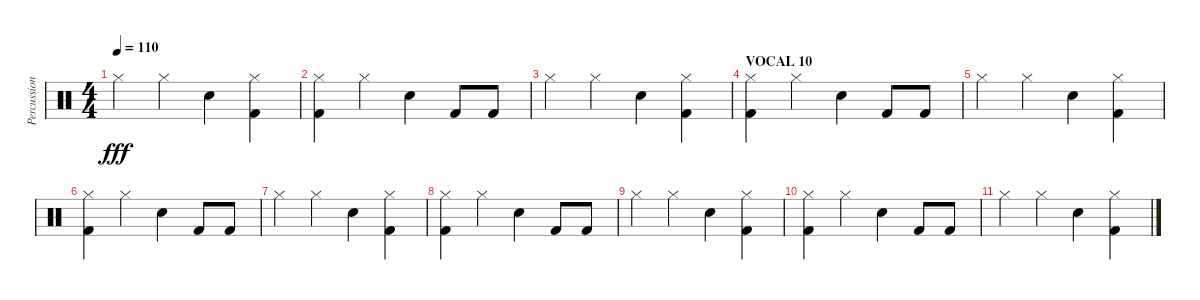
\track ("Percussion" "Percussion") {instrument percussion}
\staff {score}
\articulation defaults
\ts (4 4)
\tempo 110
\clef neutral
\ks c "Hi-Hat (closed)".4{dy fff} "Hi-Hat (closed)".4 "Electric Snare (hit)".4
("Kick (hit) 2" "Hi-Hat (closed)").4 |
("Kick (hit) 2" "Hi-Hat (closed)").4 "Hi-Hat (closed)".4 "Electric Snare (hit)".4 "Kick (hit) 2".8 "Kick (hit) 2".8 |
"Hi-Hat (closed)".4 "Hi-Hat (closed)".4 "Electric Snare (hit)".4 ("Kick (hit) 2" "Hi-Hat (closed)").4 |
\section ("" "VOCAL 10")
("Kick (hit) 2" "Hi-Hat (closed)").4 "Hi-Hat (closed)".4 "Electric Snare (hit)".4 "Kick (hit) 2".8 "Kick (hit) 2".8 |
"Hi-Hat (closed)".4 "Hi-Hat (closed)".4 "Electric Snare (hit)".4 ("Kick (hit) 2" "Hi-Hat (closed)").4 |
("Kick (hit) 2" "Hi-Hat (closed)").4 "Hi-Hat (closed)".4 "Electric Snare (hit)".4 "Kick (hit) 2".8 "Kick (hit) 2".8 |
"Hi-Hat (closed)".4 "Hi-Hat (closed)".4 "Electric Snare (hit)".4 ("Kick (hit) 2" "Hi-Hat (closed)").4 |
("Kick (hit) 2" "Hi-Hat (closed)").4 "Hi-Hat (closed)".4 "Electric Snare (hit)".4 "Kick (hit) 2".8 "Kick (hit) 2".8 |
"Hi-Hat (closed)".4{volume 0} "Hi-Hat (closed)".4 "Electric Snare (hit)".4 ("Kick (hit) 2" "Hi-Hat (closed)").4 |
("Kick (hit) 2" "Hi-Hat (closed)").4 "Hi-Hat (closed)".4 "Electric Snare (hit)".4 "Kick (hit) 2".8 "Kick (hit) 2".8 |
"Hi-Hat (closed)".4 "Hi-Hat (closed)".4 "Electric Snare (hit)".4 ("Kick (hit) 2" "Hi-Hat (closed)").4
